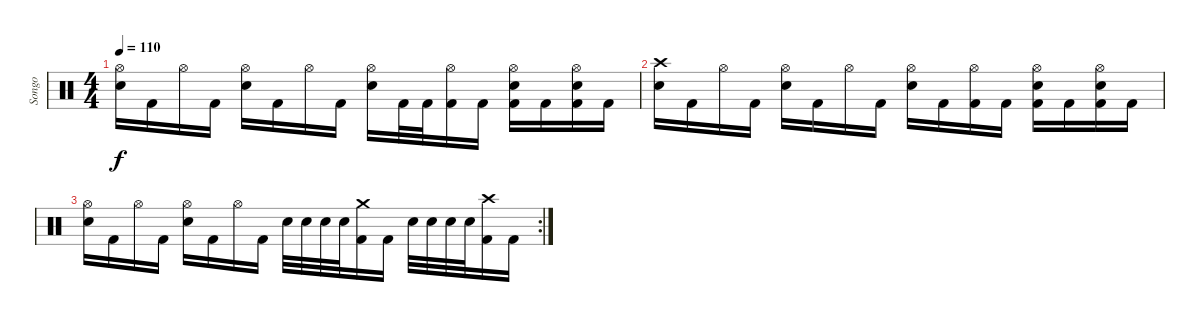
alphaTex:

\track ("Songo" "Songo") {instrument percussion}
\staff {score}
\articulation defaults
\ts (4 4)
\tempo 110
\clef neutral
\ks c
("Hi-Hat (open)" "Snare (hit) 2").16{dy f} "Kick (hit) 2".16 "Hi-Hat (open)".16 "Kick (hit) 2".16 ("Hi-Hat (open)" "Snare (hit) 2").16 "Kick (hit) 2".16 "Hi-Hat (open)".16 "Kick (hit) 2".16 ("Hi-Hat (open)" "Snare (hit) 2").16 "Kick (hit) 2".32 "Kick (hit) 2".32 ("Hi-Hat (open)" "Kick (hit) 2").16 "Kick (hit) 2".16 ("Hi-Hat (open)" "Snare (hit) 2" "Kick (hit) 2").16 "Kick (hit) 2".16 ("Hi-Hat (open)" "Snare (hit) 2" "Kick (hit) 2").16 "Kick (hit) 2".16 |
("Crash high (hit)" "Snare (hit) 2").16 "Kick (hit) 2".16 "Hi-Hat (open)".16 "Kick (hit) 2".16 ("Hi-Hat (open)" "Snare (hit) 2").16 "Kick (hit) 2".16 "Hi-Hat (open)".16 "Kick (hit) 2".16 ("Hi-Hat (open)" "Snare (hit) 2").16 "Kick (hit) 2".16 ("Hi-Hat (open)" "Kick (hit) 2").16 "Kick (hit) 2".16 ("Hi-Hat (open)" "Snare (hit) 2" "Kick (hit) 2").16 "Kick (hit) 2".16 ("Hi-Hat (open)" "Snare (hit) 2" "Kick (hit) 2").16 "Kick (hit) 2".16 |
\rc 2
("Hi-Hat (open)" "Snare (hit) 2").16 "Kick (hit) 2".16 "Hi-Hat (open)".16 "Kick (hit) 2".16 ("Hi-Hat (open)" "Snare (hit) 2").16 "Kick (hit) 2".16 "Hi-Hat (open)".16 "Kick (hit) 2".16 "Snare (hit) 2".32 "Snare (hit) 2".32 "Snare (hit) 2".32 "Snare (hit) 2".32 ("Crash medium (hit)" "Kick (hit) 2").16 "Kick (hit) 2".16 "Snare (hit) 2".32 "Snare (hit) 2".32 "Snare (hit) 2".32 "Snare (hit) 2".32 ("Crash high (hit)" "Kick (hit) 2").16 "Kick (hit) 2".16
